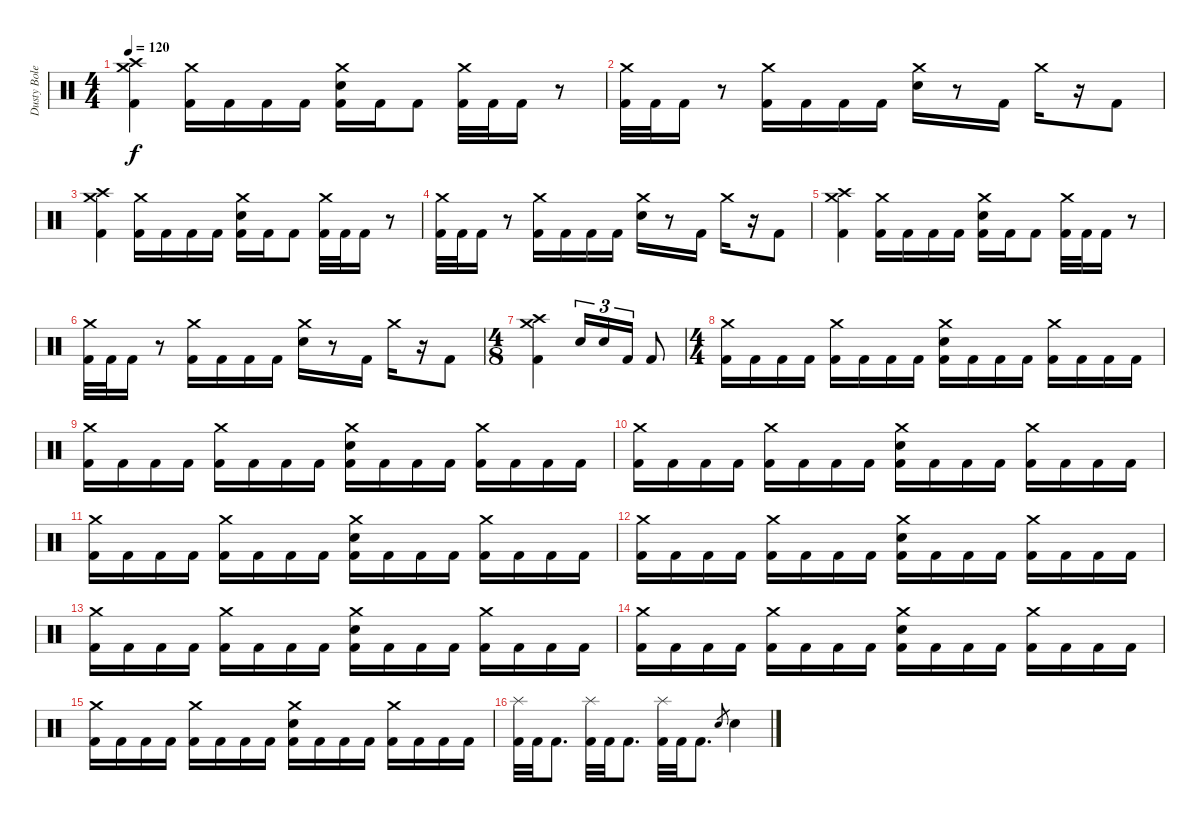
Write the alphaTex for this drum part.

\track ("Dusty Boles" "Dusty Bole") {instrument percussion}
\staff {score}
\articulation defaults
\ts (4 4)
\tempo 120
\clef neutral
\ks c
("Crash high (hit)" "Crash medium (hit)" "Kick (hit) 2").4{dy f} ("Crash medium (hit)" "Kick (hit) 2").16 "Kick (hit) 2".16 "Kick (hit) 2".16 "Kick (hit) 2".16 ("Crash medium (hit)" "Electric Snare (hit)" "Kick (hit) 2").16 "Kick (hit) 2".16 "Kick (hit) 2".8 ("Crash medium (hit)" "Kick (hit) 2").32 "Kick (hit) 2".32 "Kick (hit) 2".16 r.8 |
("Crash medium (hit)" "Kick (hit) 2").32 "Kick (hit) 2".32 "Kick (hit) 2".16 r.8 ("Crash medium (hit)" "Kick (hit) 2").16 "Kick (hit) 2".16 "Kick (hit) 2".16 "Kick (hit) 2".16 ("Crash medium (hit)" "Electric Snare (hit)").16 r.8 "Kick (hit) 2".16 "Crash medium (hit)".16 r.16 "Kick (hit) 2".8 |
("Crash high (hit)" "Crash medium (hit)" "Kick (hit) 2").4 ("Crash medium (hit)" "Kick (hit) 2").16 "Kick (hit) 2".16 "Kick (hit) 2".16 "Kick (hit) 2".16 ("Crash medium (hit)" "Electric Snare (hit)" "Kick (hit) 2").16 "Kick (hit) 2".16 "Kick (hit) 2".8 ("Crash medium (hit)" "Kick (hit) 2").32 "Kick (hit) 2".32 "Kick (hit) 2".16 r.8 |
("Crash medium (hit)" "Kick (hit) 2").32 "Kick (hit) 2".32 "Kick (hit) 2".16 r.8 ("Crash medium (hit)" "Kick (hit) 2").16 "Kick (hit) 2".16 "Kick (hit) 2".16 "Kick (hit) 2".16 ("Crash medium (hit)" "Electric Snare (hit)").16 r.8 "Kick (hit) 2".16 "Crash medium (hit)".16 r.16 "Kick (hit) 2".8 |
("Crash high (hit)" "Crash medium (hit)" "Kick (hit) 2").4 ("Crash medium (hit)" "Kick (hit) 2").16 "Kick (hit) 2".16 "Kick (hit) 2".16 "Kick (hit) 2".16 ("Crash medium (hit)" "Electric Snare (hit)" "Kick (hit) 2").16 "Kick (hit) 2".16 "Kick (hit) 2".8 ("Crash medium (hit)" "Kick (hit) 2").32 "Kick (hit) 2".32 "Kick (hit) 2".16 r.8 |
("Crash medium (hit)" "Kick (hit) 2").32 "Kick (hit) 2".32 "Kick (hit) 2".16 r.8 ("Crash medium (hit)" "Kick (hit) 2").16 "Kick (hit) 2".16 "Kick (hit) 2".16 "Kick (hit) 2".16 ("Crash medium (hit)" "Electric Snare (hit)").16 r.8 "Kick (hit) 2".16 "Crash medium (hit)".16 r.16 "Kick (hit) 2".8 |
\ts (4 8)
("Crash high (hit)" "Crash medium (hit)" "Kick (hit) 2").4 "Electric Snare (hit)".16{tu (3 2)} "Electric Snare (hit)".16{tu (3 2)} "Kick (hit) 2".16{tu (3 2)} "Kick (hit) 2".8 |
\ts (4 4)
("Crash medium (hit)" "Kick (hit) 2").16 "Kick (hit) 2".16 "Kick (hit) 2".16 "Kick (hit) 2".16 ("Crash medium (hit)" "Kick (hit) 2").16 "Kick (hit) 2".16 "Kick (hit) 2".16 "Kick (hit) 2".16 ("Crash medium (hit)" "Electric Snare (hit)" "Kick (hit) 2").16 "Kick (hit) 2".16 "Kick (hit) 2".16 "Kick (hit) 2".16 ("Crash medium (hit)" "Kick (hit) 2").16 "Kick (hit) 2".16 "Kick (hit) 2".16 "Kick (hit) 2".16 |
("Crash medium (hit)" "Kick (hit) 2").16 "Kick (hit) 2".16 "Kick (hit) 2".16 "Kick (hit) 2".16 ("Crash medium (hit)" "Kick (hit) 2").16 "Kick (hit) 2".16 "Kick (hit) 2".16 "Kick (hit) 2".16 ("Crash medium (hit)" "Electric Snare (hit)" "Kick (hit) 2").16 "Kick (hit) 2".16 "Kick (hit) 2".16 "Kick (hit) 2".16 ("Crash medium (hit)" "Kick (hit) 2").16 "Kick (hit) 2".16 "Kick (hit) 2".16 "Kick (hit) 2".16 |
("Crash medium (hit)" "Kick (hit) 2").16 "Kick (hit) 2".16 "Kick (hit) 2".16 "Kick (hit) 2".16 ("Crash medium (hit)" "Kick (hit) 2").16 "Kick (hit) 2".16 "Kick (hit) 2".16 "Kick (hit) 2".16 ("Crash medium (hit)" "Electric Snare (hit)" "Kick (hit) 2").16 "Kick (hit) 2".16 "Kick (hit) 2".16 "Kick (hit) 2".16 ("Crash medium (hit)" "Kick (hit) 2").16 "Kick (hit) 2".16 "Kick (hit) 2".16 "Kick (hit) 2".16 |
("Crash medium (hit)" "Kick (hit) 2").16 "Kick (hit) 2".16 "Kick (hit) 2".16 "Kick (hit) 2".16 ("Crash medium (hit)" "Kick (hit) 2").16 "Kick (hit) 2".16 "Kick (hit) 2".16 "Kick (hit) 2".16 ("Crash medium (hit)" "Electric Snare (hit)" "Kick (hit) 2").16 "Kick (hit) 2".16 "Kick (hit) 2".16 "Kick (hit) 2".16 ("Crash medium (hit)" "Kick (hit) 2").16 "Kick (hit) 2".16 "Kick (hit) 2".16 "Kick (hit) 2".16 |
("Crash medium (hit)" "Kick (hit) 2").16 "Kick (hit) 2".16 "Kick (hit) 2".16 "Kick (hit) 2".16 ("Crash medium (hit)" "Kick (hit) 2").16 "Kick (hit) 2".16 "Kick (hit) 2".16 "Kick (hit) 2".16 ("Crash medium (hit)" "Electric Snare (hit)" "Kick (hit) 2").16 "Kick (hit) 2".16 "Kick (hit) 2".16 "Kick (hit) 2".16 ("Crash medium (hit)" "Kick (hit) 2").16 "Kick (hit) 2".16 "Kick (hit) 2".16 "Kick (hit) 2".16 |
("Crash medium (hit)" "Kick (hit) 2").16 "Kick (hit) 2".16 "Kick (hit) 2".16 "Kick (hit) 2".16 ("Crash medium (hit)" "Kick (hit) 2").16 "Kick (hit) 2".16 "Kick (hit) 2".16 "Kick (hit) 2".16 ("Crash medium (hit)" "Electric Snare (hit)" "Kick (hit) 2").16 "Kick (hit) 2".16 "Kick (hit) 2".16 "Kick (hit) 2".16 ("Crash medium (hit)" "Kick (hit) 2").16 "Kick (hit) 2".16 "Kick (hit) 2".16 "Kick (hit) 2".16 |
("Crash medium (hit)" "Kick (hit) 2").16 "Kick (hit) 2".16 "Kick (hit) 2".16 "Kick (hit) 2".16 ("Crash medium (hit)" "Kick (hit) 2").16 "Kick (hit) 2".16 "Kick (hit) 2".16 "Kick (hit) 2".16 ("Crash medium (hit)" "Electric Snare (hit)" "Kick (hit) 2").16 "Kick (hit) 2".16 "Kick (hit) 2".16 "Kick (hit) 2".16 ("Crash medium (hit)" "Kick (hit) 2").16 "Kick (hit) 2".16 "Kick (hit) 2".16 "Kick (hit) 2".16 |
("Crash medium (hit)" "Kick (hit) 2").16 "Kick (hit) 2".16 "Kick (hit) 2".16 "Kick (hit) 2".16 ("Crash medium (hit)" "Kick (hit) 2").16 "Kick (hit) 2".16 "Kick (hit) 2".16 "Kick (hit) 2".16 ("Crash medium (hit)" "Electric Snare (hit)" "Kick (hit) 2").16 "Kick (hit) 2".16 "Kick (hit) 2".16 "Kick (hit) 2".16 ("Crash medium (hit)" "Kick (hit) 2").16 "Kick (hit) 2".16 "Kick (hit) 2".16 "Kick (hit) 2".16 |
("Splash (hit)" "Kick (hit) 2").32 "Kick (hit) 2".32 "Kick (hit) 2".8{d} ("Splash (hit)" "Kick (hit) 2").32 "Kick (hit) 2".32 "Kick (hit) 2".8{d} ("Splash (hit)" "Kick (hit) 2").32 "Kick (hit) 2".32 "Kick (hit) 2".8{d} "Electric Snare (hit)".8{gr} "Electric Snare (hit)".4
